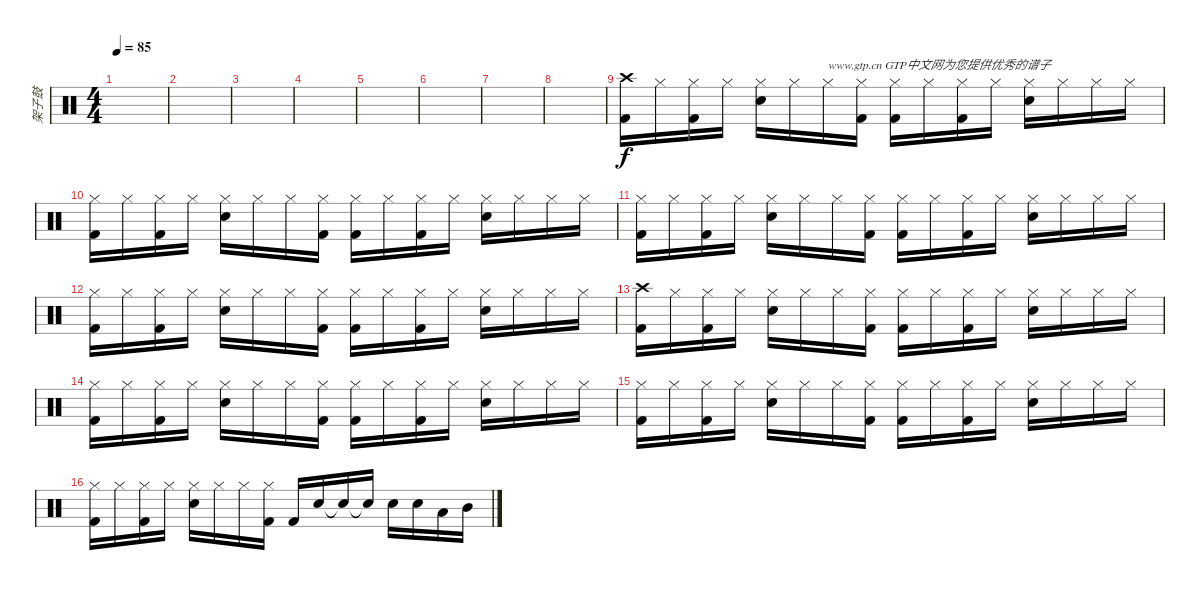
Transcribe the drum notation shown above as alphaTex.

\track ("架子鼓" "架子鼓") {instrument percussion}
\staff {score}
\articulation defaults
\ts (4 4)
\tempo 85
\clef neutral
\ks c
|
|
|
|
|
|
|
|
("Crash high (hit)" "Kick (hit) 2").16 "Hi-Hat (closed)".16 ("Hi-Hat (closed)" "Kick (hit) 2").16 "Hi-Hat (closed)".16 ("Hi-Hat (closed)" "Snare (hit) 2").16 "Hi-Hat (closed)".16 "Hi-Hat (closed)".16{txt "www.gtp.cn GTP中文网为您提供优秀的谱子"} ("Hi-Hat (closed)" "Kick (hit) 2").16 ("Hi-Hat (closed)" "Kick (hit) 2").16 "Hi-Hat (closed)".16 ("Hi-Hat (closed)" "Kick (hit) 2").16 "Hi-Hat (closed)".16 ("Hi-Hat (closed)" "Snare (hit) 2").16 "Hi-Hat (closed)".16 "Hi-Hat (closed)".16 "Hi-Hat (closed)".16 |
("Hi-Hat (closed)" "Kick (hit) 2").16 "Hi-Hat (closed)".16 ("Hi-Hat (closed)" "Kick (hit) 2").16 "Hi-Hat (closed)".16 ("Hi-Hat (closed)" "Snare (hit) 2").16 "Hi-Hat (closed)".16 "Hi-Hat (closed)".16 ("Hi-Hat (closed)" "Kick (hit) 2").16 ("Hi-Hat (closed)" "Kick (hit) 2").16 "Hi-Hat (closed)".16 ("Hi-Hat (closed)" "Kick (hit) 2").16 "Hi-Hat (closed)".16 ("Hi-Hat (closed)" "Snare (hit) 2").16 "Hi-Hat (closed)".16 "Hi-Hat (closed)".16 "Hi-Hat (closed)".16 |
("Hi-Hat (closed)" "Kick (hit) 2").16 "Hi-Hat (closed)".16 ("Hi-Hat (closed)" "Kick (hit) 2").16 "Hi-Hat (closed)".16 ("Hi-Hat (closed)" "Snare (hit) 2").16 "Hi-Hat (closed)".16 "Hi-Hat (closed)".16 ("Hi-Hat (closed)" "Kick (hit) 2").16 ("Hi-Hat (closed)" "Kick (hit) 2").16 "Hi-Hat (closed)".16 ("Hi-Hat (closed)" "Kick (hit) 2").16 "Hi-Hat (closed)".16 ("Hi-Hat (closed)" "Snare (hit) 2").16 "Hi-Hat (closed)".16 "Hi-Hat (closed)".16 "Hi-Hat (closed)".16 |
("Hi-Hat (closed)" "Kick (hit) 2").16 "Hi-Hat (closed)".16 ("Hi-Hat (closed)" "Kick (hit) 2").16 "Hi-Hat (closed)".16 ("Hi-Hat (closed)" "Snare (hit) 2").16 "Hi-Hat (closed)".16 "Hi-Hat (closed)".16 ("Hi-Hat (closed)" "Kick (hit) 2").16 ("Hi-Hat (closed)" "Kick (hit) 2").16 "Hi-Hat (closed)".16 ("Hi-Hat (closed)" "Kick (hit) 2").16 "Hi-Hat (closed)".16 ("Hi-Hat (closed)" "Snare (hit) 2").16 "Hi-Hat (closed)".16 "Hi-Hat (closed)".16 "Hi-Hat (closed)".16 |
("Crash high (hit)" "Kick (hit) 2").16 "Hi-Hat (closed)".16 ("Hi-Hat (closed)" "Kick (hit) 2").16 "Hi-Hat (closed)".16 ("Hi-Hat (closed)" "Snare (hit) 2").16 "Hi-Hat (closed)".16 "Hi-Hat (closed)".16 ("Hi-Hat (closed)" "Kick (hit) 2").16 ("Hi-Hat (closed)" "Kick (hit) 2").16 "Hi-Hat (closed)".16 ("Hi-Hat (closed)" "Kick (hit) 2").16 "Hi-Hat (closed)".16 ("Hi-Hat (closed)" "Snare (hit) 2").16 "Hi-Hat (closed)".16 "Hi-Hat (closed)".16 "Hi-Hat (closed)".16 |
("Hi-Hat (closed)" "Kick (hit) 2").16 "Hi-Hat (closed)".16 ("Hi-Hat (closed)" "Kick (hit) 2").16 "Hi-Hat (closed)".16 ("Hi-Hat (closed)" "Snare (hit) 2").16 "Hi-Hat (closed)".16 "Hi-Hat (closed)".16 ("Hi-Hat (closed)" "Kick (hit) 2").16 ("Hi-Hat (closed)" "Kick (hit) 2").16 "Hi-Hat (closed)".16 ("Hi-Hat (closed)" "Kick (hit) 2").16 "Hi-Hat (closed)".16 ("Hi-Hat (closed)" "Snare (hit) 2").16 "Hi-Hat (closed)".16 "Hi-Hat (closed)".16 "Hi-Hat (closed)".16 |
("Hi-Hat (closed)" "Kick (hit) 2").16 "Hi-Hat (closed)".16 ("Hi-Hat (closed)" "Kick (hit) 2").16 "Hi-Hat (closed)".16 ("Hi-Hat (closed)" "Snare (hit) 2").16 "Hi-Hat (closed)".16 "Hi-Hat (closed)".16 ("Hi-Hat (closed)" "Kick (hit) 2").16 ("Hi-Hat (closed)" "Kick (hit) 2").16 "Hi-Hat (closed)".16 ("Hi-Hat (closed)" "Kick (hit) 2").16 "Hi-Hat (closed)".16 ("Hi-Hat (closed)" "Snare (hit) 2").16 "Hi-Hat (closed)".16 "Hi-Hat (closed)".16 "Hi-Hat (closed)".16 |
("Hi-Hat (closed)" "Kick (hit) 2").16 "Hi-Hat (closed)".16 ("Hi-Hat (closed)" "Kick (hit) 2").16 "Hi-Hat (closed)".16 ("Hi-Hat (closed)" "Snare (hit) 2").16 "Hi-Hat (closed)".16 "Hi-Hat (closed)".16 ("Hi-Hat (closed)" "Kick (hit) 2").16 "Kick (hit) 2".16 "Snare (hit) 2".16 "Snare (hit)"{t}.16 "Snare (hit)"{t}.16 "Snare (hit) 2".16 "Snare (hit) 2".16 "Low Tom (hit)".16 "Mid Tom (hit)".16
